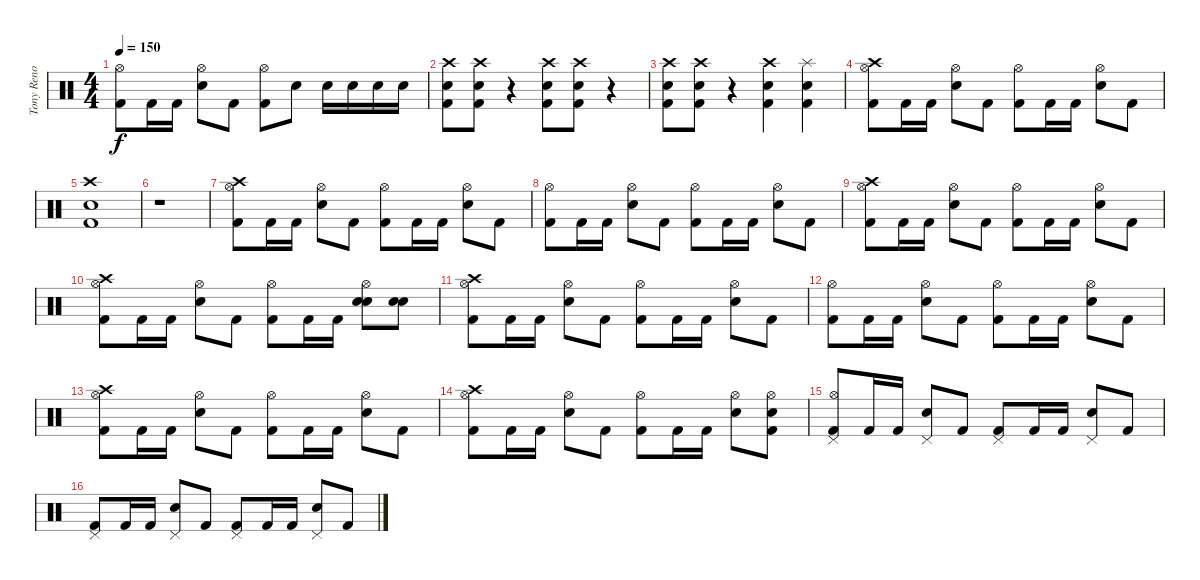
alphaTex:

\track ("Tony Reno" "Tony Reno") {instrument percussion}
\staff {score}
\articulation defaults
\ts (4 4)
\tempo 150
\clef neutral
\ks c
("Kick (hit) 2" "Hi-Hat (open)").8{dy f} "Kick (hit) 2".16 "Kick (hit) 2".16 ("Snare (hit) 2" "Hi-Hat (open)").8 "Kick (hit) 2".8 ("Kick (hit) 2" "Hi-Hat (open)").8 "Snare (hit) 2".8 "Snare (hit) 2".16 "Snare (hit) 2".16 "Snare (hit) 2".16 "Snare (hit) 2".16 |
("Kick (hit) 2" "Snare (hit) 2" "Crash high (hit)").8 ("Kick (hit) 2" "Snare (hit) 2" "Crash high (hit)").8 r.4 ("Kick (hit) 2" "Snare (hit) 2" "Crash high (hit)").8 ("Kick (hit) 2" "Snare (hit) 2" "Crash high (hit)").8 r.4 |
("Kick (hit) 2" "Snare (hit) 2" "Crash high (hit)").8 ("Kick (hit) 2" "Snare (hit) 2" "Crash high (hit)").8 r.4 ("Kick (hit) 2" "Snare (hit) 2" "Crash high (hit)").4 ("Kick (hit) 2" "Snare (hit) 2" "Splash (hit)").4 |
("Kick (hit) 2" "Hi-Hat (open)" "Crash high (hit)").8 "Kick (hit) 2".16 "Kick (hit) 2".16 ("Snare (hit) 2" "Hi-Hat (open)").8 "Kick (hit) 2".8 ("Kick (hit) 2" "Hi-Hat (open)").8 "Kick (hit) 2".16 "Kick (hit) 2".16 ("Snare (hit) 2" "Hi-Hat (open)").8 "Kick (hit) 2".8 |
("Kick (hit) 2" "Snare (hit) 2" "Crash high (hit)").1 |
r.1 |
("Kick (hit) 2" "Hi-Hat (open)" "Crash high (hit)").8 "Kick (hit) 2".16 "Kick (hit) 2".16 ("Snare (hit) 2" "Hi-Hat (open)").8 "Kick (hit) 2".8 ("Kick (hit) 2" "Hi-Hat (open)").8 "Kick (hit) 2".16 "Kick (hit) 2".16 ("Snare (hit) 2" "Hi-Hat (open)").8 "Kick (hit) 2".8 |
("Kick (hit) 2" "Hi-Hat (open)").8 "Kick (hit) 2".16 "Kick (hit) 2".16 ("Snare (hit) 2" "Hi-Hat (open)").8 "Kick (hit) 2".8 ("Kick (hit) 2" "Hi-Hat (open)").8 "Kick (hit) 2".16 "Kick (hit) 2".16 ("Snare (hit) 2" "Hi-Hat (open)").8 "Kick (hit) 2".8 |
("Kick (hit) 2" "Hi-Hat (open)" "Crash high (hit)").8 "Kick (hit) 2".16 "Kick (hit) 2".16 ("Snare (hit) 2" "Hi-Hat (open)").8 "Kick (hit) 2".8 ("Kick (hit) 2" "Hi-Hat (open)").8 "Kick (hit) 2".16 "Kick (hit) 2".16 ("Snare (hit) 2" "Hi-Hat (open)").8 "Kick (hit) 2".8 |
("Kick (hit) 2" "Hi-Hat (open)" "Crash high (hit)").8 "Kick (hit) 2".16 "Kick (hit) 2".16 ("Snare (hit) 2" "Hi-Hat (open)").8 "Kick (hit) 2".8 ("Kick (hit) 2" "Hi-Hat (open)").8 "Kick (hit) 2".16 "Kick (hit) 2".16 ("Snare (hit) 2" "Electric Snare (hit)" "Hi-Hat (open)").8 ("Snare (hit) 2" "Electric Snare (hit)").8 |
("Kick (hit) 2" "Hi-Hat (open)" "Crash high (hit)").8 "Kick (hit) 2".16 "Kick (hit) 2".16 ("Snare (hit) 2" "Hi-Hat (open)").8 "Kick (hit) 2".8 ("Kick (hit) 2" "Hi-Hat (open)").8 "Kick (hit) 2".16 "Kick (hit) 2".16 ("Snare (hit) 2" "Hi-Hat (open)").8 "Kick (hit) 2".8 |
("Kick (hit) 2" "Hi-Hat (open)").8 "Kick (hit) 2".16 "Kick (hit) 2".16 ("Snare (hit) 2" "Hi-Hat (open)").8 "Kick (hit) 2".8 ("Kick (hit) 2" "Hi-Hat (open)").8 "Kick (hit) 2".16 "Kick (hit) 2".16 ("Snare (hit) 2" "Hi-Hat (open)").8 "Kick (hit) 2".8 |
("Kick (hit) 2" "Hi-Hat (open)" "Crash high (hit)").8 "Kick (hit) 2".16 "Kick (hit) 2".16 ("Snare (hit) 2" "Hi-Hat (open)").8 "Kick (hit) 2".8 ("Kick (hit) 2" "Hi-Hat (open)").8 "Kick (hit) 2".16 "Kick (hit) 2".16 ("Snare (hit) 2" "Hi-Hat (open)").8 "Kick (hit) 2".8 |
("Kick (hit) 2" "Hi-Hat (open)" "Crash high (hit)").8 "Kick (hit) 2".16 "Kick (hit) 2".16 ("Snare (hit) 2" "Hi-Hat (open)").8 "Kick (hit) 2".8 ("Kick (hit) 2" "Hi-Hat (open)").8 "Kick (hit) 2".16 "Kick (hit) 2".16 ("Snare (hit) 2" "Hi-Hat (open)").8 ("Kick (hit) 2" "Snare (hit) 2" "Hi-Hat (open)").8 |
("Kick (hit) 2" "Pedal Hi-Hat (hit)" "Hi-Hat (open)").8 "Kick (hit) 2".16 "Kick (hit) 2".16 ("Snare (hit) 2" "Pedal Hi-Hat (hit)").8 "Kick (hit) 2".8 ("Kick (hit) 2" "Pedal Hi-Hat (hit)").8 "Kick (hit) 2".16 "Kick (hit) 2".16 ("Snare (hit) 2" "Pedal Hi-Hat (hit)").8 "Kick (hit) 2".8 |
("Kick (hit) 2" "Pedal Hi-Hat (hit)").8 "Kick (hit) 2".16 "Kick (hit) 2".16 ("Snare (hit) 2" "Pedal Hi-Hat (hit)").8 "Kick (hit) 2".8 ("Kick (hit) 2" "Pedal Hi-Hat (hit)").8 "Kick (hit) 2".16 "Kick (hit) 2".16 ("Snare (hit) 2" "Pedal Hi-Hat (hit)").8 "Kick (hit) 2".8
